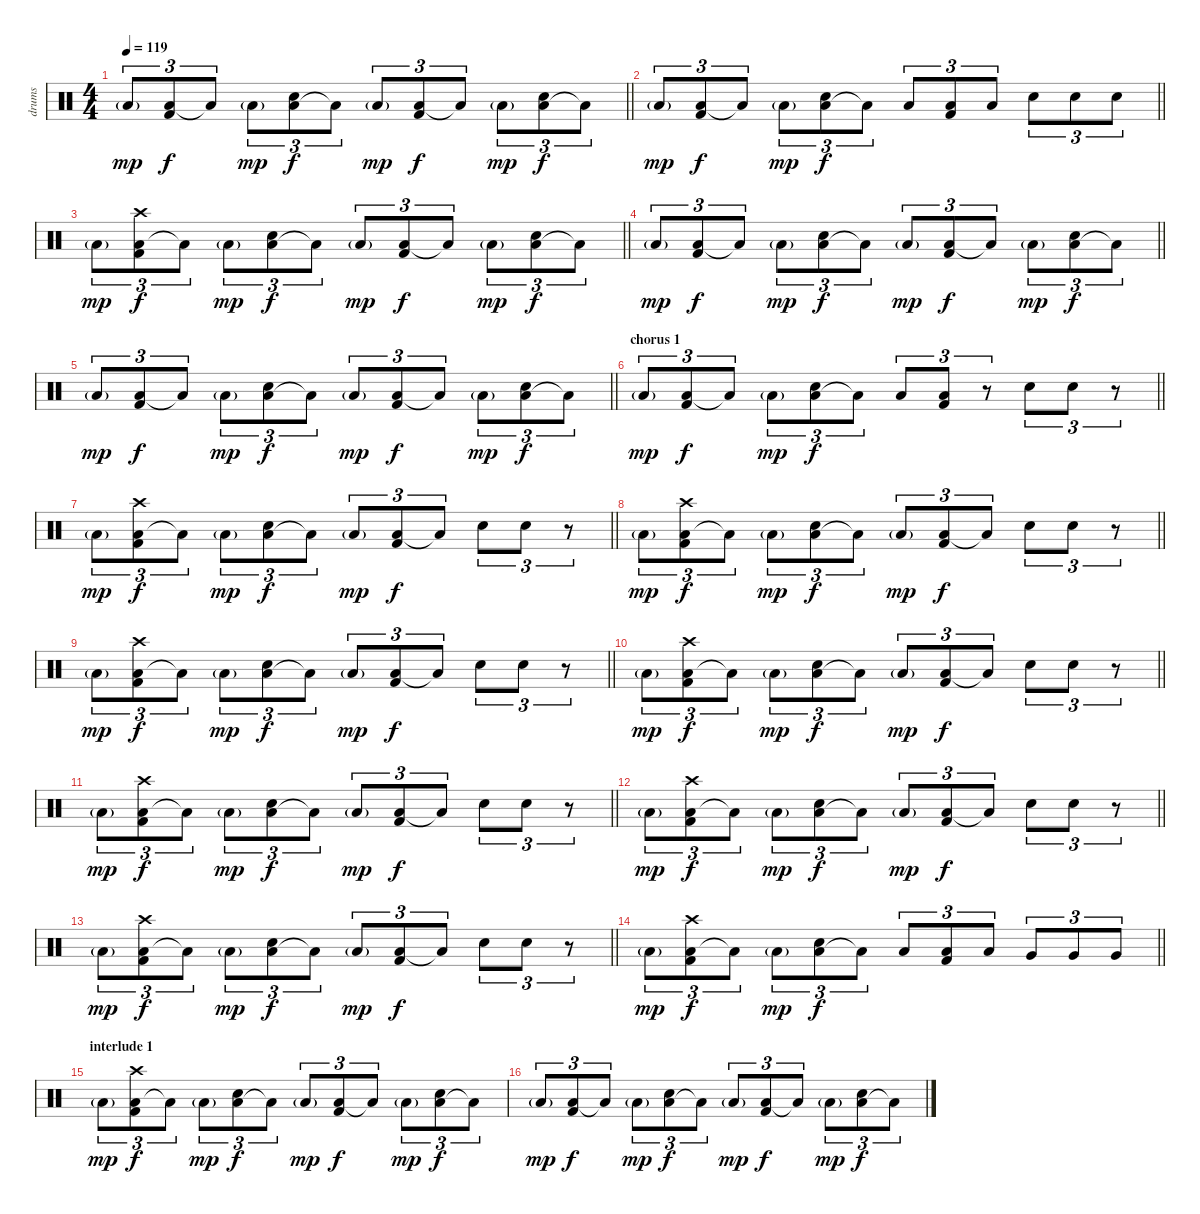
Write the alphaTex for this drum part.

\track ("drums" "drums") {instrument percussion}
\staff {score}
\articulation defaults
\ts (4 4)
\tempo 119
\clef neutral
\barLineRight lightlight
\ks c "Low Floor Tom (hit)"{g}.8{tu (3 2) dy mp}
("Low Floor Tom (hit)" "Kick (hit) 2").8{tu (3 2) dy f} "Low Floor Tom (hit)"{t}.8{tu (3 2)} "Low Floor Tom (hit)"{g}.8{tu (3 2) dy mp} ("Low Floor Tom (hit)" "Electric Snare (hit)").8{tu (3 2) dy f} "Low Floor Tom (hit)"{t}.8{tu (3 2)} "Low Floor Tom (hit)"{g}.8{tu (3 2) dy mp} ("Low Floor Tom (hit)" "Kick (hit) 2").8{tu (3 2) dy f} "Low Floor Tom (hit)"{t}.8{tu (3 2)} "Low Floor Tom (hit)"{g}.8{tu (3 2) dy mp} ("Low Floor Tom (hit)" "Electric Snare (hit)").8{tu (3 2) dy f} "Low Floor Tom (hit)"{t}.8{tu (3 2)} |
\barLineRight lightlight "Low Floor Tom (hit)"{g}.8{tu (3 2) dy mp}
("Low Floor Tom (hit)" "Kick (hit) 2").8{tu (3 2) dy f} "Low Floor Tom (hit)"{t}.8{tu (3 2)} "Low Floor Tom (hit)"{g}.8{tu (3 2) dy mp} ("Low Floor Tom (hit)" "Electric Snare (hit)").8{tu (3 2) dy f} "Low Floor Tom (hit)"{t}.8{tu (3 2)} "Low Floor Tom (hit)".8{tu (3 2)} ("Low Floor Tom (hit)" "Kick (hit) 2").8{tu (3 2)} "Low Floor Tom (hit)".8{tu (3 2)} "Electric Snare (hit)".8{tu (3 2)} "Electric Snare (hit)".8{tu (3 2)} "Electric Snare (hit)".8{tu (3 2)} |
\barLineRight lightlight "Low Floor Tom (hit)"{g}.8{tu (3 2) dy mp}
("Low Floor Tom (hit)" "Kick (hit) 2" "Crash high (hit)").8{tu (3 2) dy f} "Low Floor Tom (hit)"{t}.8{tu (3 2)} "Low Floor Tom (hit)"{g}.8{tu (3 2) dy mp} ("Low Floor Tom (hit)" "Electric Snare (hit)").8{tu (3 2) dy f} "Low Floor Tom (hit)"{t}.8{tu (3 2)} "Low Floor Tom (hit)"{g}.8{tu (3 2) dy mp} ("Low Floor Tom (hit)" "Kick (hit) 2").8{tu (3 2) dy f} "Low Floor Tom (hit)"{t}.8{tu (3 2)} "Low Floor Tom (hit)"{g}.8{tu (3 2) dy mp} ("Low Floor Tom (hit)" "Electric Snare (hit)").8{tu (3 2) dy f} "Low Floor Tom (hit)"{t}.8{tu (3 2)} |
\barLineRight lightlight "Low Floor Tom (hit)"{g}.8{tu (3 2) dy mp}
("Low Floor Tom (hit)" "Kick (hit) 2").8{tu (3 2) dy f} "Low Floor Tom (hit)"{t}.8{tu (3 2)} "Low Floor Tom (hit)"{g}.8{tu (3 2) dy mp} ("Low Floor Tom (hit)" "Electric Snare (hit)").8{tu (3 2) dy f} "Low Floor Tom (hit)"{t}.8{tu (3 2)} "Low Floor Tom (hit)"{g}.8{tu (3 2) dy mp} ("Low Floor Tom (hit)" "Kick (hit) 2").8{tu (3 2) dy f} "Low Floor Tom (hit)"{t}.8{tu (3 2)} "Low Floor Tom (hit)"{g}.8{tu (3 2) dy mp} ("Low Floor Tom (hit)" "Electric Snare (hit)").8{tu (3 2) dy f} "Low Floor Tom (hit)"{t}.8{tu (3 2)} |
\barLineRight lightlight "Low Floor Tom (hit)"{g}.8{tu (3 2) dy mp}
("Low Floor Tom (hit)" "Kick (hit) 2").8{tu (3 2) dy f} "Low Floor Tom (hit)"{t}.8{tu (3 2)} "Low Floor Tom (hit)"{g}.8{tu (3 2) dy mp} ("Low Floor Tom (hit)" "Electric Snare (hit)").8{tu (3 2) dy f} "Low Floor Tom (hit)"{t}.8{tu (3 2)} "Low Floor Tom (hit)"{g}.8{tu (3 2) dy mp} ("Low Floor Tom (hit)" "Kick (hit) 2").8{tu (3 2) dy f} "Low Floor Tom (hit)"{t}.8{tu (3 2)} "Low Floor Tom (hit)"{g}.8{tu (3 2) dy mp} ("Low Floor Tom (hit)" "Electric Snare (hit)").8{tu (3 2) dy f} "Low Floor Tom (hit)"{t}.8{tu (3 2)} |
\section ("" "chorus 1")
\barLineRight lightlight "Low Floor Tom (hit)"{g}.8{tu (3 2) dy mp}
("Low Floor Tom (hit)" "Kick (hit) 2").8{tu (3 2) dy f} "Low Floor Tom (hit)"{t}.8{tu (3 2)} "Low Floor Tom (hit)"{g}.8{tu (3 2) dy mp} ("Low Floor Tom (hit)" "Electric Snare (hit)").8{tu (3 2) dy f} "Low Floor Tom (hit)"{t}.8{tu (3 2)} "Low Floor Tom (hit)".8{tu (3 2)} ("Low Floor Tom (hit)" "Kick (hit) 2").8{tu (3 2)} r.8{tu (3 2)} "Electric Snare (hit)".8{tu (3 2)} "Electric Snare (hit)".8{tu (3 2)} r.8{tu (3 2)} |
\barLineRight lightlight "Low Floor Tom (hit)"{g}.8{tu (3 2) dy mp}
("Low Floor Tom (hit)" "Kick (hit) 2" "Crash high (hit)").8{tu (3 2) dy f} "Low Floor Tom (hit)"{t}.8{tu (3 2)} "Low Floor Tom (hit)"{g}.8{tu (3 2) dy mp} ("Low Floor Tom (hit)" "Electric Snare (hit)").8{tu (3 2) dy f} "Low Floor Tom (hit)"{t}.8{tu (3 2)} "Low Floor Tom (hit)"{g}.8{tu (3 2) dy mp} ("Low Floor Tom (hit)" "Kick (hit) 2").8{tu (3 2) dy f} "Low Floor Tom (hit)"{t}.8{tu (3 2)} "Electric Snare (hit)".8{tu (3 2)} "Electric Snare (hit)".8{tu (3 2)} r.8{tu (3 2)} |
\barLineRight lightlight "Low Floor Tom (hit)"{g}.8{tu (3 2) dy mp}
("Low Floor Tom (hit)" "Kick (hit) 2" "Crash high (hit)").8{tu (3 2) dy f} "Low Floor Tom (hit)"{t}.8{tu (3 2)} "Low Floor Tom (hit)"{g}.8{tu (3 2) dy mp} ("Low Floor Tom (hit)" "Electric Snare (hit)").8{tu (3 2) dy f} "Low Floor Tom (hit)"{t}.8{tu (3 2)} "Low Floor Tom (hit)"{g}.8{tu (3 2) dy mp} ("Low Floor Tom (hit)" "Kick (hit) 2").8{tu (3 2) dy f} "Low Floor Tom (hit)"{t}.8{tu (3 2)} "Electric Snare (hit)".8{tu (3 2)} "Electric Snare (hit)".8{tu (3 2)} r.8{tu (3 2)} |
\barLineRight lightlight "Low Floor Tom (hit)"{g}.8{tu (3 2) dy mp}
("Low Floor Tom (hit)" "Kick (hit) 2" "Crash high (hit)").8{tu (3 2) dy f} "Low Floor Tom (hit)"{t}.8{tu (3 2)} "Low Floor Tom (hit)"{g}.8{tu (3 2) dy mp} ("Low Floor Tom (hit)" "Electric Snare (hit)").8{tu (3 2) dy f} "Low Floor Tom (hit)"{t}.8{tu (3 2)} "Low Floor Tom (hit)"{g}.8{tu (3 2) dy mp} ("Low Floor Tom (hit)" "Kick (hit) 2").8{tu (3 2) dy f} "Low Floor Tom (hit)"{t}.8{tu (3 2)} "Electric Snare (hit)".8{tu (3 2)} "Electric Snare (hit)".8{tu (3 2)} r.8{tu (3 2)} |
\barLineRight lightlight "Low Floor Tom (hit)"{g}.8{tu (3 2) dy mp}
("Low Floor Tom (hit)" "Kick (hit) 2" "Crash high (hit)").8{tu (3 2) dy f} "Low Floor Tom (hit)"{t}.8{tu (3 2)} "Low Floor Tom (hit)"{g}.8{tu (3 2) dy mp} ("Low Floor Tom (hit)" "Electric Snare (hit)").8{tu (3 2) dy f} "Low Floor Tom (hit)"{t}.8{tu (3 2)} "Low Floor Tom (hit)"{g}.8{tu (3 2) dy mp} ("Low Floor Tom (hit)" "Kick (hit) 2").8{tu (3 2) dy f} "Low Floor Tom (hit)"{t}.8{tu (3 2)} "Electric Snare (hit)".8{tu (3 2)} "Electric Snare (hit)".8{tu (3 2)} r.8{tu (3 2)} |
\barLineRight lightlight "Low Floor Tom (hit)"{g}.8{tu (3 2) dy mp}
("Low Floor Tom (hit)" "Kick (hit) 2" "Crash high (hit)").8{tu (3 2) dy f} "Low Floor Tom (hit)"{t}.8{tu (3 2)} "Low Floor Tom (hit)"{g}.8{tu (3 2) dy mp} ("Low Floor Tom (hit)" "Electric Snare (hit)").8{tu (3 2) dy f} "Low Floor Tom (hit)"{t}.8{tu (3 2)} "Low Floor Tom (hit)"{g}.8{tu (3 2) dy mp} ("Low Floor Tom (hit)" "Kick (hit) 2").8{tu (3 2) dy f} "Low Floor Tom (hit)"{t}.8{tu (3 2)} "Electric Snare (hit)".8{tu (3 2)} "Electric Snare (hit)".8{tu (3 2)} r.8{tu (3 2)} |
\barLineRight lightlight "Low Floor Tom (hit)"{g}.8{tu (3 2) dy mp}
("Low Floor Tom (hit)" "Kick (hit) 2" "Crash high (hit)").8{tu (3 2) dy f} "Low Floor Tom (hit)"{t}.8{tu (3 2)} "Low Floor Tom (hit)"{g}.8{tu (3 2) dy mp} ("Low Floor Tom (hit)" "Electric Snare (hit)").8{tu (3 2) dy f} "Low Floor Tom (hit)"{t}.8{tu (3 2)} "Low Floor Tom (hit)"{g}.8{tu (3 2) dy mp} ("Low Floor Tom (hit)" "Kick (hit) 2").8{tu (3 2) dy f} "Low Floor Tom (hit)"{t}.8{tu (3 2)} "Electric Snare (hit)".8{tu (3 2)} "Electric Snare (hit)".8{tu (3 2)} r.8{tu (3 2)} |
\barLineRight lightlight "Low Floor Tom (hit)"{g}.8{tu (3 2) dy mp}
("Low Floor Tom (hit)" "Kick (hit) 2" "Crash high (hit)").8{tu (3 2) dy f} "Low Floor Tom (hit)"{t}.8{tu (3 2)} "Low Floor Tom (hit)"{g}.8{tu (3 2) dy mp} ("Low Floor Tom (hit)" "Electric Snare (hit)").8{tu (3 2) dy f} "Low Floor Tom (hit)"{t}.8{tu (3 2)} "Low Floor Tom (hit)"{g}.8{tu (3 2) dy mp} ("Low Floor Tom (hit)" "Kick (hit) 2").8{tu (3 2) dy f} "Low Floor Tom (hit)"{t}.8{tu (3 2)} "Electric Snare (hit)".8{tu (3 2)} "Electric Snare (hit)".8{tu (3 2)} r.8{tu (3 2)} |
\barLineRight lightlight "Low Floor Tom (hit)"{g}.8{tu (3 2) dy mp}
("Low Floor Tom (hit)" "Kick (hit) 2" "Crash high (hit)").8{tu (3 2) dy f} "Low Floor Tom (hit)"{t}.8{tu (3 2)} "Low Floor Tom (hit)"{g}.8{tu (3 2) dy mp} ("Low Floor Tom (hit)" "Electric Snare (hit)").8{tu (3 2) dy f} "Low Floor Tom (hit)"{t}.8{tu (3 2)} "Low Floor Tom (hit)".8{tu (3 2)} ("Low Floor Tom (hit)" "Kick (hit) 2").8{tu (3 2)} "Low Floor Tom (hit)".8{tu (3 2)} "Very Low Tom (hit)".8{tu (3 2)} "Very Low Tom (hit)".8{tu (3 2)} "Very Low Tom (hit)".8{tu (3 2)} |
\section ("" "interlude 1")
"Low Floor Tom (hit)"{g}.8{tu (3 2) dy mp} ("Low Floor Tom (hit)" "Kick (hit) 2" "Crash high (hit)").8{tu (3 2) dy f} "Low Floor Tom (hit)"{t}.8{tu (3 2)} "Low Floor Tom (hit)"{g}.8{tu (3 2) dy mp} ("Low Floor Tom (hit)" "Electric Snare (hit)").8{tu (3 2) dy f} "Low Floor Tom (hit)"{t}.8{tu (3 2)} "Low Floor Tom (hit)"{g}.8{tu (3 2) dy mp} ("Low Floor Tom (hit)" "Kick (hit) 2").8{tu (3 2) dy f} "Low Floor Tom (hit)"{t}.8{tu (3 2)} "Low Floor Tom (hit)"{g}.8{tu (3 2) dy mp} ("Low Floor Tom (hit)" "Electric Snare (hit)").8{tu (3 2) dy f} "Low Floor Tom (hit)"{t}.8{tu (3 2)} |
"Low Floor Tom (hit)"{g}.8{tu (3 2) dy mp} ("Low Floor Tom (hit)" "Kick (hit) 2").8{tu (3 2) dy f} "Low Floor Tom (hit)"{t}.8{tu (3 2)} "Low Floor Tom (hit)"{g}.8{tu (3 2) dy mp} ("Low Floor Tom (hit)" "Electric Snare (hit)").8{tu (3 2) dy f} "Low Floor Tom (hit)"{t}.8{tu (3 2)} "Low Floor Tom (hit)"{g}.8{tu (3 2) dy mp} ("Low Floor Tom (hit)" "Kick (hit) 2").8{tu (3 2) dy f} "Low Floor Tom (hit)"{t}.8{tu (3 2)} "Low Floor Tom (hit)"{g}.8{tu (3 2) dy mp} ("Low Floor Tom (hit)" "Electric Snare (hit)").8{tu (3 2) dy f} "Low Floor Tom (hit)"{t}.8{tu (3 2)}
